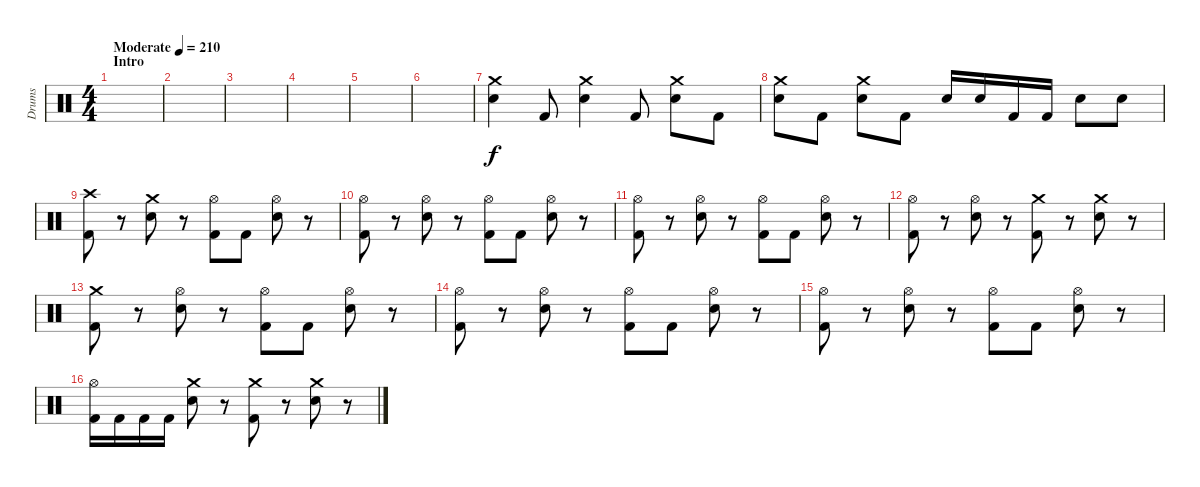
\track ("Drums" "Drums") {instrument percussion}
\staff {score}
\articulation defaults
\ts (4 4)
\section ("" "Intro")
\tempo (210 "Moderate")
\clef neutral
\ks c
|
|
|
|
|
|
("Crash medium (hit)" "Electric Snare (hit)").4 "Kick (hit) 2".8 ("Crash medium (hit)" "Electric Snare (hit)").4 "Kick (hit) 2".8 ("Crash medium (hit)" "Electric Snare (hit)").8 "Kick (hit) 2".8 |
("Crash medium (hit)" "Electric Snare (hit)").8 "Kick (hit) 2".8 ("Crash medium (hit)" "Electric Snare (hit)").8 "Kick (hit) 2".8 "Electric Snare (hit)".16 "Electric Snare (hit)".16 "Kick (hit) 2".16 "Kick (hit) 2".16 "Electric Snare (hit)".8 "Electric Snare (hit)".8 |
("Crash high (hit)" "Kick (hit) 2").8 r.8 ("Crash medium (hit)" "Electric Snare (hit)").8 r.8 ("Hi-Hat (open)" "Kick (hit) 2").8 "Kick (hit) 2".8 ("Hi-Hat (open)" "Electric Snare (hit)").8 r.8 |
("Hi-Hat (open)" "Kick (hit) 2").8 r.8 ("Hi-Hat (open)" "Electric Snare (hit)").8 r.8 ("Hi-Hat (open)" "Kick (hit) 2").8 "Kick (hit) 2".8 ("Hi-Hat (open)" "Electric Snare (hit)").8 r.8 |
("Hi-Hat (open)" "Kick (hit) 2").8 r.8 ("Hi-Hat (open)" "Electric Snare (hit)").8 r.8 ("Hi-Hat (open)" "Kick (hit) 2").8 "Kick (hit) 2".8 ("Hi-Hat (open)" "Electric Snare (hit)").8 r.8 |
("Hi-Hat (open)" "Kick (hit) 2").8 r.8 ("Hi-Hat (open)" "Electric Snare (hit)").8 r.8 ("Crash medium (hit)" "Kick (hit) 2").8 r.8 ("Crash medium (hit)" "Electric Snare (hit)").8 r.8 |
("Crash medium (hit)" "Kick (hit) 2").8 r.8 ("Hi-Hat (open)" "Electric Snare (hit)").8 r.8 ("Hi-Hat (open)" "Kick (hit) 2").8 "Kick (hit) 2".8 ("Hi-Hat (open)" "Electric Snare (hit)").8 r.8 |
("Hi-Hat (open)" "Kick (hit) 2").8 r.8 ("Hi-Hat (open)" "Electric Snare (hit)").8 r.8 ("Hi-Hat (open)" "Kick (hit) 2").8 "Kick (hit) 2".8 ("Hi-Hat (open)" "Electric Snare (hit)").8 r.8 |
("Hi-Hat (open)" "Kick (hit) 2").8 r.8 ("Hi-Hat (open)" "Electric Snare (hit)").8 r.8 ("Hi-Hat (open)" "Kick (hit) 2").8 "Kick (hit) 2".8 ("Hi-Hat (open)" "Electric Snare (hit)").8 r.8 |
("Hi-Hat (open)" "Kick (hit) 2").16 "Kick (hit) 2".16 "Kick (hit) 2".16 "Kick (hit) 2".16 ("Crash medium (hit)" "Electric Snare (hit)").8 r.8 ("Crash medium (hit)" "Kick (hit) 2").8 r.8 ("Crash medium (hit)" "Electric Snare (hit)").8 r.8
